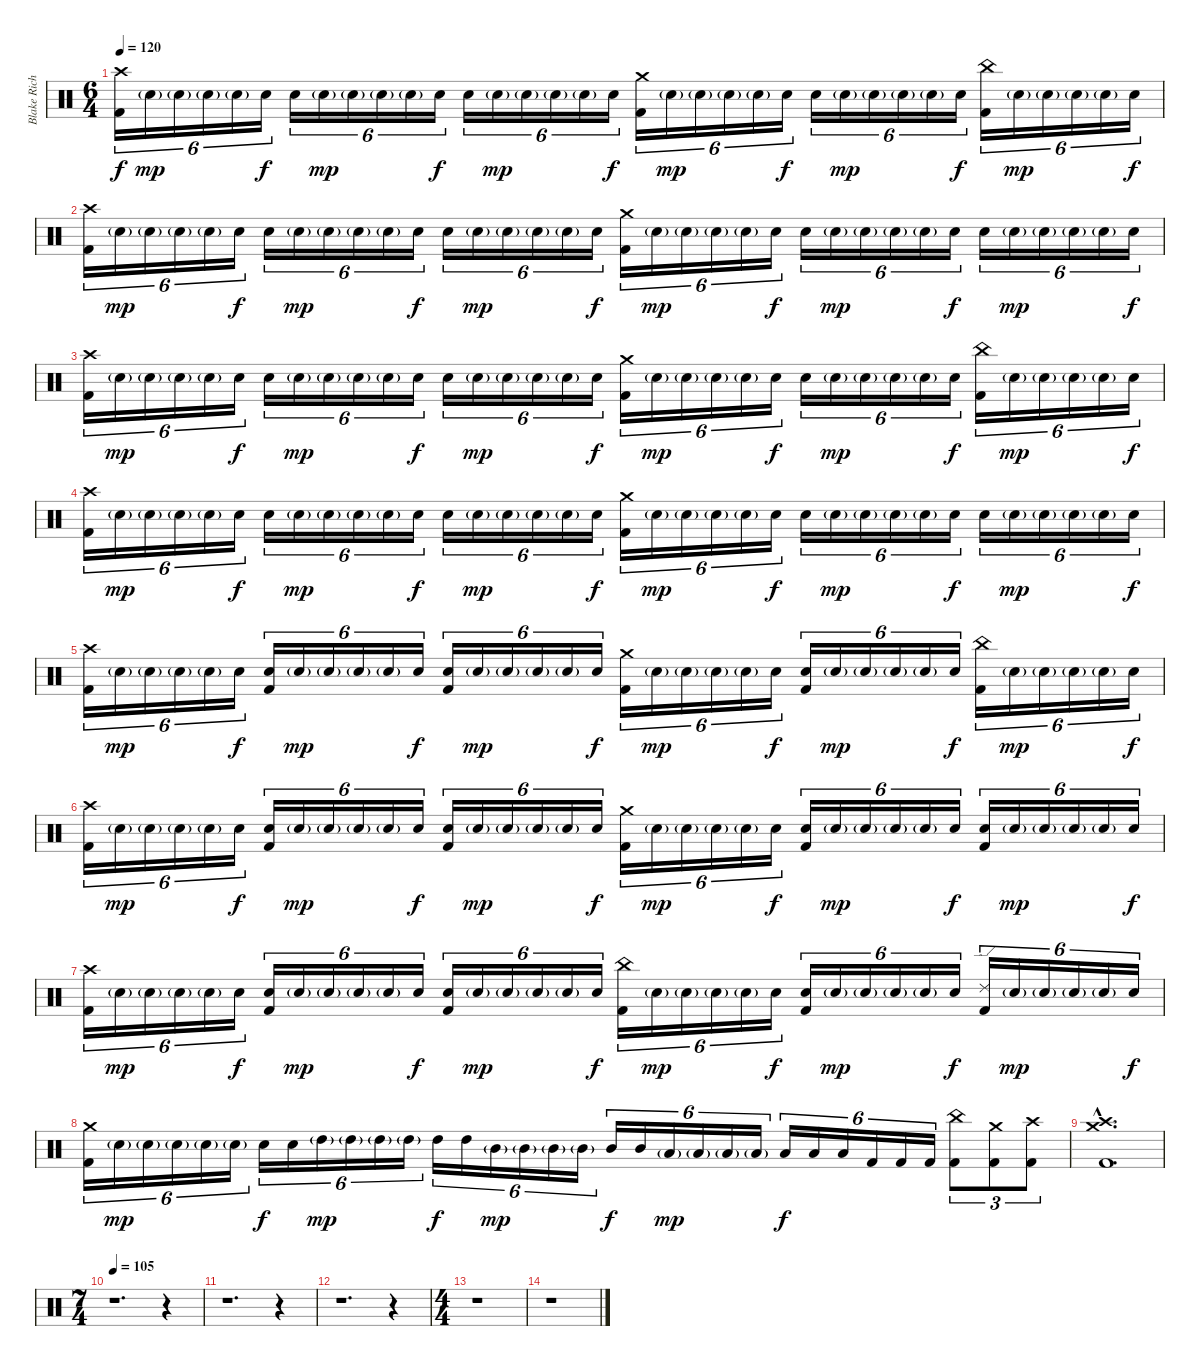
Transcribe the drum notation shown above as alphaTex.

\track ("Blake Richardson - Drums" "Blake Rich") {instrument percussion}
\staff {score}
\articulation defaults
\ts (6 4)
\tempo 120
\clef neutral
\ks c
("Crash high (hit)" "Kick (hit) 2").16{tu (6 4) dy f} "Electric Snare (hit)"{g}.16{tu (6 4) dy mp} "Electric Snare (hit)"{g}.16{tu (6 4)} "Electric Snare (hit)"{g}.16{tu (6 4)} "Electric Snare (hit)"{g}.16{tu (6 4)} "Electric Snare (hit)".16{tu (6 4) dy f} "Electric Snare (hit)".16{tu (6 4)} "Electric Snare (hit)"{g}.16{tu (6 4) dy mp} "Electric Snare (hit)"{g}.16{tu (6 4)} "Electric Snare (hit)"{g}.16{tu (6 4)} "Electric Snare (hit)"{g}.16{tu (6 4)} "Electric Snare (hit)".16{tu (6 4) dy f} "Electric Snare (hit)".16{tu (6 4)} "Electric Snare (hit)"{g}.16{tu (6 4) dy mp} "Electric Snare (hit)"{g}.16{tu (6 4)} "Electric Snare (hit)"{g}.16{tu (6 4)} "Electric Snare (hit)"{g}.16{tu (6 4)} "Electric Snare (hit)".16{tu (6 4) dy f} ("Crash medium (hit)" "Kick (hit) 2").16{tu (6 4)} "Electric Snare (hit)"{g}.16{tu (6 4) dy mp} "Electric Snare (hit)"{g}.16{tu (6 4)} "Electric Snare (hit)"{g}.16{tu (6 4)} "Electric Snare (hit)"{g}.16{tu (6 4)} "Electric Snare (hit)".16{tu (6 4) dy f} "Electric Snare (hit)".16{tu (6 4)} "Electric Snare (hit)"{g}.16{tu (6 4) dy mp} "Electric Snare (hit)"{g}.16{tu (6 4)} "Electric Snare (hit)"{g}.16{tu (6 4)} "Electric Snare (hit)"{g}.16{tu (6 4)} "Electric Snare (hit)".16{tu (6 4) dy f} ("China (hit)" "Kick (hit) 2").16{tu (6 4)} "Electric Snare (hit)"{g}.16{tu (6 4) dy mp} "Electric Snare (hit)"{g}.16{tu (6 4)} "Electric Snare (hit)"{g}.16{tu (6 4)} "Electric Snare (hit)"{g}.16{tu (6 4)} "Electric Snare (hit)".16{tu (6 4) dy f} |
("Crash high (hit)" "Kick (hit) 2").16{tu (6 4)} "Electric Snare (hit)"{g}.16{tu (6 4) dy mp} "Electric Snare (hit)"{g}.16{tu (6 4)} "Electric Snare (hit)"{g}.16{tu (6 4)} "Electric Snare (hit)"{g}.16{tu (6 4)} "Electric Snare (hit)".16{tu (6 4) dy f} "Electric Snare (hit)".16{tu (6 4)} "Electric Snare (hit)"{g}.16{tu (6 4) dy mp} "Electric Snare (hit)"{g}.16{tu (6 4)} "Electric Snare (hit)"{g}.16{tu (6 4)} "Electric Snare (hit)"{g}.16{tu (6 4)} "Electric Snare (hit)".16{tu (6 4) dy f} "Electric Snare (hit)".16{tu (6 4)} "Electric Snare (hit)"{g}.16{tu (6 4) dy mp} "Electric Snare (hit)"{g}.16{tu (6 4)} "Electric Snare (hit)"{g}.16{tu (6 4)} "Electric Snare (hit)"{g}.16{tu (6 4)} "Electric Snare (hit)".16{tu (6 4) dy f} ("Crash medium (hit)" "Kick (hit) 2").16{tu (6 4)} "Electric Snare (hit)"{g}.16{tu (6 4) dy mp} "Electric Snare (hit)"{g}.16{tu (6 4)} "Electric Snare (hit)"{g}.16{tu (6 4)} "Electric Snare (hit)"{g}.16{tu (6 4)} "Electric Snare (hit)".16{tu (6 4) dy f} "Electric Snare (hit)".16{tu (6 4)} "Electric Snare (hit)"{g}.16{tu (6 4) dy mp} "Electric Snare (hit)"{g}.16{tu (6 4)} "Electric Snare (hit)"{g}.16{tu (6 4)} "Electric Snare (hit)"{g}.16{tu (6 4)} "Electric Snare (hit)".16{tu (6 4) dy f} "Electric Snare (hit)".16{tu (6 4)} "Electric Snare (hit)"{g}.16{tu (6 4) dy mp} "Electric Snare (hit)"{g}.16{tu (6 4)} "Electric Snare (hit)"{g}.16{tu (6 4)} "Electric Snare (hit)"{g}.16{tu (6 4)} "Electric Snare (hit)".16{tu (6 4) dy f} |
("Crash high (hit)" "Kick (hit) 2").16{tu (6 4)} "Electric Snare (hit)"{g}.16{tu (6 4) dy mp} "Electric Snare (hit)"{g}.16{tu (6 4)} "Electric Snare (hit)"{g}.16{tu (6 4)} "Electric Snare (hit)"{g}.16{tu (6 4)} "Electric Snare (hit)".16{tu (6 4) dy f} "Electric Snare (hit)".16{tu (6 4)} "Electric Snare (hit)"{g}.16{tu (6 4) dy mp} "Electric Snare (hit)"{g}.16{tu (6 4)} "Electric Snare (hit)"{g}.16{tu (6 4)} "Electric Snare (hit)"{g}.16{tu (6 4)} "Electric Snare (hit)".16{tu (6 4) dy f} "Electric Snare (hit)".16{tu (6 4)} "Electric Snare (hit)"{g}.16{tu (6 4) dy mp} "Electric Snare (hit)"{g}.16{tu (6 4)} "Electric Snare (hit)"{g}.16{tu (6 4)} "Electric Snare (hit)"{g}.16{tu (6 4)} "Electric Snare (hit)".16{tu (6 4) dy f} ("Crash medium (hit)" "Kick (hit) 2").16{tu (6 4)} "Electric Snare (hit)"{g}.16{tu (6 4) dy mp} "Electric Snare (hit)"{g}.16{tu (6 4)} "Electric Snare (hit)"{g}.16{tu (6 4)} "Electric Snare (hit)"{g}.16{tu (6 4)} "Electric Snare (hit)".16{tu (6 4) dy f} "Electric Snare (hit)".16{tu (6 4)} "Electric Snare (hit)"{g}.16{tu (6 4) dy mp} "Electric Snare (hit)"{g}.16{tu (6 4)} "Electric Snare (hit)"{g}.16{tu (6 4)} "Electric Snare (hit)"{g}.16{tu (6 4)} "Electric Snare (hit)".16{tu (6 4) dy f} ("China (hit)" "Kick (hit) 2").16{tu (6 4)} "Electric Snare (hit)"{g}.16{tu (6 4) dy mp} "Electric Snare (hit)"{g}.16{tu (6 4)} "Electric Snare (hit)"{g}.16{tu (6 4)} "Electric Snare (hit)"{g}.16{tu (6 4)} "Electric Snare (hit)".16{tu (6 4) dy f} |
("Crash high (hit)" "Kick (hit) 2").16{tu (6 4)} "Electric Snare (hit)"{g}.16{tu (6 4) dy mp} "Electric Snare (hit)"{g}.16{tu (6 4)} "Electric Snare (hit)"{g}.16{tu (6 4)} "Electric Snare (hit)"{g}.16{tu (6 4)} "Electric Snare (hit)".16{tu (6 4) dy f} "Electric Snare (hit)".16{tu (6 4)} "Electric Snare (hit)"{g}.16{tu (6 4) dy mp} "Electric Snare (hit)"{g}.16{tu (6 4)} "Electric Snare (hit)"{g}.16{tu (6 4)} "Electric Snare (hit)"{g}.16{tu (6 4)} "Electric Snare (hit)".16{tu (6 4) dy f} "Electric Snare (hit)".16{tu (6 4)} "Electric Snare (hit)"{g}.16{tu (6 4) dy mp} "Electric Snare (hit)"{g}.16{tu (6 4)} "Electric Snare (hit)"{g}.16{tu (6 4)} "Electric Snare (hit)"{g}.16{tu (6 4)} "Electric Snare (hit)".16{tu (6 4) dy f} ("Crash medium (hit)" "Kick (hit) 2").16{tu (6 4)} "Electric Snare (hit)"{g}.16{tu (6 4) dy mp} "Electric Snare (hit)"{g}.16{tu (6 4)} "Electric Snare (hit)"{g}.16{tu (6 4)} "Electric Snare (hit)"{g}.16{tu (6 4)} "Electric Snare (hit)".16{tu (6 4) dy f} "Electric Snare (hit)".16{tu (6 4)} "Electric Snare (hit)"{g}.16{tu (6 4) dy mp} "Electric Snare (hit)"{g}.16{tu (6 4)} "Electric Snare (hit)"{g}.16{tu (6 4)} "Electric Snare (hit)"{g}.16{tu (6 4)} "Electric Snare (hit)".16{tu (6 4) dy f} "Electric Snare (hit)".16{tu (6 4)} "Electric Snare (hit)"{g}.16{tu (6 4) dy mp} "Electric Snare (hit)"{g}.16{tu (6 4)} "Electric Snare (hit)"{g}.16{tu (6 4)} "Electric Snare (hit)"{g}.16{tu (6 4)} "Electric Snare (hit)".16{tu (6 4) dy f} |
("Crash high (hit)" "Kick (hit) 2").16{tu (6 4)} "Electric Snare (hit)"{g}.16{tu (6 4) dy mp} "Electric Snare (hit)"{g}.16{tu (6 4)} "Electric Snare (hit)"{g}.16{tu (6 4)} "Electric Snare (hit)"{g}.16{tu (6 4)} "Electric Snare (hit)".16{tu (6 4) dy f} ("Electric Snare (hit)" "Kick (hit) 2").16{tu (6 4)} "Electric Snare (hit)"{g}.16{tu (6 4) dy mp} "Electric Snare (hit)"{g}.16{tu (6 4)} "Electric Snare (hit)"{g}.16{tu (6 4)} "Electric Snare (hit)"{g}.16{tu (6 4)} "Electric Snare (hit)".16{tu (6 4) dy f} ("Electric Snare (hit)" "Kick (hit) 2").16{tu (6 4)} "Electric Snare (hit)"{g}.16{tu (6 4) dy mp} "Electric Snare (hit)"{g}.16{tu (6 4)} "Electric Snare (hit)"{g}.16{tu (6 4)} "Electric Snare (hit)"{g}.16{tu (6 4)} "Electric Snare (hit)".16{tu (6 4) dy f} ("Crash medium (hit)" "Kick (hit) 2").16{tu (6 4)} "Electric Snare (hit)"{g}.16{tu (6 4) dy mp} "Electric Snare (hit)"{g}.16{tu (6 4)} "Electric Snare (hit)"{g}.16{tu (6 4)} "Electric Snare (hit)"{g}.16{tu (6 4)} "Electric Snare (hit)".16{tu (6 4) dy f} ("Electric Snare (hit)" "Kick (hit) 2").16{tu (6 4)} "Electric Snare (hit)"{g}.16{tu (6 4) dy mp} "Electric Snare (hit)"{g}.16{tu (6 4)} "Electric Snare (hit)"{g}.16{tu (6 4)} "Electric Snare (hit)"{g}.16{tu (6 4)} "Electric Snare (hit)".16{tu (6 4) dy f} ("China (hit)" "Kick (hit) 2").16{tu (6 4)} "Electric Snare (hit)"{g}.16{tu (6 4) dy mp} "Electric Snare (hit)"{g}.16{tu (6 4)} "Electric Snare (hit)"{g}.16{tu (6 4)} "Electric Snare (hit)"{g}.16{tu (6 4)} "Electric Snare (hit)".16{tu (6 4) dy f} |
("Crash high (hit)" "Kick (hit) 2").16{tu (6 4)} "Electric Snare (hit)"{g}.16{tu (6 4) dy mp} "Electric Snare (hit)"{g}.16{tu (6 4)} "Electric Snare (hit)"{g}.16{tu (6 4)} "Electric Snare (hit)"{g}.16{tu (6 4)} "Electric Snare (hit)".16{tu (6 4) dy f} ("Electric Snare (hit)" "Kick (hit) 2").16{tu (6 4)} "Electric Snare (hit)"{g}.16{tu (6 4) dy mp} "Electric Snare (hit)"{g}.16{tu (6 4)} "Electric Snare (hit)"{g}.16{tu (6 4)} "Electric Snare (hit)"{g}.16{tu (6 4)} "Electric Snare (hit)".16{tu (6 4) dy f} ("Electric Snare (hit)" "Kick (hit) 2").16{tu (6 4)} "Electric Snare (hit)"{g}.16{tu (6 4) dy mp} "Electric Snare (hit)"{g}.16{tu (6 4)} "Electric Snare (hit)"{g}.16{tu (6 4)} "Electric Snare (hit)"{g}.16{tu (6 4)} "Electric Snare (hit)".16{tu (6 4) dy f} ("Crash medium (hit)" "Kick (hit) 2").16{tu (6 4)} "Electric Snare (hit)"{g}.16{tu (6 4) dy mp} "Electric Snare (hit)"{g}.16{tu (6 4)} "Electric Snare (hit)"{g}.16{tu (6 4)} "Electric Snare (hit)"{g}.16{tu (6 4)} "Electric Snare (hit)".16{tu (6 4) dy f} ("Electric Snare (hit)" "Kick (hit) 2").16{tu (6 4)} "Electric Snare (hit)"{g}.16{tu (6 4) dy mp} "Electric Snare (hit)"{g}.16{tu (6 4)} "Electric Snare (hit)"{g}.16{tu (6 4)} "Electric Snare (hit)"{g}.16{tu (6 4)} "Electric Snare (hit)".16{tu (6 4) dy f} ("Electric Snare (hit)" "Kick (hit) 2").16{tu (6 4)} "Electric Snare (hit)"{g}.16{tu (6 4) dy mp} "Electric Snare (hit)"{g}.16{tu (6 4)} "Electric Snare (hit)"{g}.16{tu (6 4)} "Electric Snare (hit)"{g}.16{tu (6 4)} "Electric Snare (hit)".16{tu (6 4) dy f} |
("Crash high (hit)" "Kick (hit) 2").16{tu (6 4)} "Electric Snare (hit)"{g}.16{tu (6 4) dy mp} "Electric Snare (hit)"{g}.16{tu (6 4)} "Electric Snare (hit)"{g}.16{tu (6 4)} "Electric Snare (hit)"{g}.16{tu (6 4)} "Electric Snare (hit)".16{tu (6 4) dy f} ("Electric Snare (hit)" "Kick (hit) 2").16{tu (6 4)} "Electric Snare (hit)"{g}.16{tu (6 4) dy mp} "Electric Snare (hit)"{g}.16{tu (6 4)} "Electric Snare (hit)"{g}.16{tu (6 4)} "Electric Snare (hit)"{g}.16{tu (6 4)} "Electric Snare (hit)".16{tu (6 4) dy f} ("Electric Snare (hit)" "Kick (hit) 2").16{tu (6 4)} "Electric Snare (hit)"{g}.16{tu (6 4) dy mp} "Electric Snare (hit)"{g}.16{tu (6 4)} "Electric Snare (hit)"{g}.16{tu (6 4)} "Electric Snare (hit)"{g}.16{tu (6 4)} "Electric Snare (hit)".16{tu (6 4) dy f} ("China (hit)" "Kick (hit) 2").16{tu (6 4)} "Electric Snare (hit)"{g}.16{tu (6 4) dy mp} "Electric Snare (hit)"{g}.16{tu (6 4)} "Electric Snare (hit)"{g}.16{tu (6 4)} "Electric Snare (hit)"{g}.16{tu (6 4)} "Electric Snare (hit)".16{tu (6 4) dy f} ("Electric Snare (hit)" "Kick (hit) 2").16{tu (6 4)} "Electric Snare (hit)"{g}.16{tu (6 4) dy mp} "Electric Snare (hit)"{g}.16{tu (6 4)} "Electric Snare (hit)"{g}.16{tu (6 4)} "Electric Snare (hit)"{g}.16{tu (6 4)} "Electric Snare (hit)".16{tu (6 4) dy f} ("Ride (edge) 2" "Kick (hit) 2").16{tu (6 4)} "Electric Snare (hit)"{g}.16{tu (6 4) dy mp} "Electric Snare (hit)"{g}.16{tu (6 4)} "Electric Snare (hit)"{g}.16{tu (6 4)} "Electric Snare (hit)"{g}.16{tu (6 4)} "Electric Snare (hit)".16{tu (6 4) dy f} |
("Crash medium (hit)" "Kick (hit) 2").16{tu (6 4)} "Electric Snare (hit)"{g}.16{tu (6 4) dy mp} "Electric Snare (hit)"{g}.16{tu (6 4)} "Electric Snare (hit)"{g}.16{tu (6 4)} "Electric Snare (hit)"{g}.16{tu (6 4)} "Electric Snare (hit)"{g}.16{tu (6 4)} "Electric Snare (hit)".16{tu (6 4) dy f} "Electric Snare (hit)".16{tu (6 4)} "High Tom (hit)"{g}.16{tu (6 4) dy mp} "High Tom (hit)"{g}.16{tu (6 4)} "High Tom (hit)"{g}.16{tu (6 4)} "High Tom (hit)"{g}.16{tu (6 4)} "High Tom (hit)".16{tu (6 4) dy f} "High Tom (hit)".16{tu (6 4)} "Mid Tom (hit)"{g}.16{tu (6 4) dy mp} "Mid Tom (hit)"{g}.16{tu (6 4)} "Mid Tom (hit)"{g}.16{tu (6 4)} "Mid Tom (hit)"{g}.16{tu (6 4)} "Mid Tom (hit)".16{tu (6 4) dy f} "Mid Tom (hit)".16{tu (6 4)} "Low Tom (hit)"{g}.16{tu (6 4) dy mp} "Low Tom (hit)"{g}.16{tu (6 4)} "Low Tom (hit)"{g}.16{tu (6 4)} "Low Tom (hit)"{g}.16{tu (6 4)} "Low Tom (hit)".16{tu (6 4) dy f} "Low Tom (hit)".16{tu (6 4)} "Low Tom (hit)".16{tu (6 4)} "Kick (hit) 2".16{tu (6 4)} "Kick (hit) 2".16{tu (6 4)} "Kick (hit) 2".16{tu (6 4)} ("China (hit)" "Kick (hit) 2").8{tu (3 2)} ("Crash medium (hit)" "Kick (hit) 2").8{tu (3 2)} ("Crash high (hit)" "Kick (hit) 2").8{tu (3 2)} |
("Crash high (hit)"{hac} "Crash medium (hit)"{hac} "Kick (hit) 2"{hac}).1{d} |
\ts (7 4)
\tempo 105
r.1{d} r.4 |
r.1{d} r.4 |
r.1{d} r.4 |
\ts (4 4)
r.1 |
r.1
